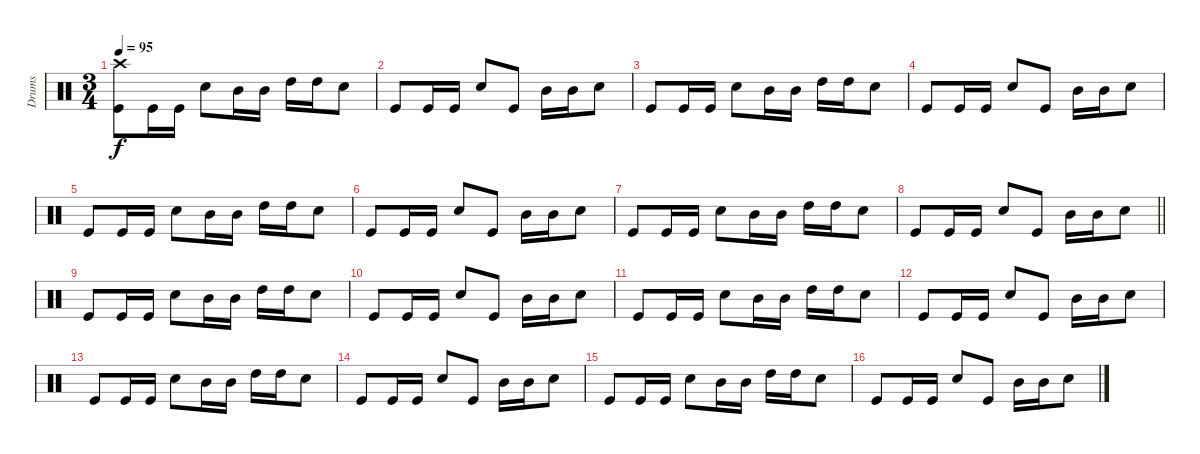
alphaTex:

\track ("Drums" "Drums") {instrument percussion}
\staff {score}
\articulation defaults
\ts (3 4)
\tempo 95
\clef neutral
\ks c
("Crash high (hit)" "Kick (hit)").8{dy f} "Kick (hit)".16 "Kick (hit)".16 "Snare (hit) 2".8 "Mid Tom (hit)".16 "Mid Tom (hit)".16 "High Tom (hit)".16 "High Tom (hit)".16 "Snare (hit) 2".8 |
"Kick (hit)".8 "Kick (hit)".16 "Kick (hit)".16 "Snare (hit) 2".8 "Kick (hit)".8 "Mid Tom (hit)".16 "Mid Tom (hit)".16 "Snare (hit) 2".8 |
"Kick (hit)".8 "Kick (hit)".16 "Kick (hit)".16 "Snare (hit) 2".8 "Mid Tom (hit)".16 "Mid Tom (hit)".16 "High Tom (hit)".16 "High Tom (hit)".16 "Snare (hit) 2".8 |
"Kick (hit)".8 "Kick (hit)".16 "Kick (hit)".16 "Snare (hit) 2".8 "Kick (hit)".8 "Mid Tom (hit)".16 "Mid Tom (hit)".16 "Snare (hit) 2".8 |
"Kick (hit)".8 "Kick (hit)".16 "Kick (hit)".16 "Snare (hit) 2".8 "Mid Tom (hit)".16 "Mid Tom (hit)".16 "High Tom (hit)".16 "High Tom (hit)".16 "Snare (hit) 2".8 |
"Kick (hit)".8 "Kick (hit)".16 "Kick (hit)".16 "Snare (hit) 2".8 "Kick (hit)".8 "Mid Tom (hit)".16 "Mid Tom (hit)".16 "Snare (hit) 2".8 |
"Kick (hit)".8 "Kick (hit)".16 "Kick (hit)".16 "Snare (hit) 2".8 "Mid Tom (hit)".16 "Mid Tom (hit)".16 "High Tom (hit)".16 "High Tom (hit)".16 "Snare (hit) 2".8 |
\barLineRight lightlight "Kick (hit)".8 "Kick (hit)".16 "Kick (hit)".16 "Snare (hit) 2".8 "Kick (hit)".8 "Mid Tom (hit)".16 "Mid Tom (hit)".16 "Snare (hit) 2".8
|
"Kick (hit)".8 "Kick (hit)".16 "Kick (hit)".16 "Snare (hit) 2".8 "Mid Tom (hit)".16 "Mid Tom (hit)".16 "High Tom (hit)".16 "High Tom (hit)".16 "Snare (hit) 2".8 |
"Kick (hit)".8 "Kick (hit)".16 "Kick (hit)".16 "Snare (hit) 2".8 "Kick (hit)".8 "Mid Tom (hit)".16 "Mid Tom (hit)".16 "Snare (hit) 2".8 |
"Kick (hit)".8 "Kick (hit)".16 "Kick (hit)".16 "Snare (hit) 2".8 "Mid Tom (hit)".16 "Mid Tom (hit)".16 "High Tom (hit)".16 "High Tom (hit)".16 "Snare (hit) 2".8 |
"Kick (hit)".8 "Kick (hit)".16 "Kick (hit)".16 "Snare (hit) 2".8 "Kick (hit)".8 "Mid Tom (hit)".16 "Mid Tom (hit)".16 "Snare (hit) 2".8 |
"Kick (hit)".8 "Kick (hit)".16 "Kick (hit)".16 "Snare (hit) 2".8 "Mid Tom (hit)".16 "Mid Tom (hit)".16 "High Tom (hit)".16 "High Tom (hit)".16 "Snare (hit) 2".8 |
"Kick (hit)".8 "Kick (hit)".16 "Kick (hit)".16 "Snare (hit) 2".8 "Kick (hit)".8 "Mid Tom (hit)".16 "Mid Tom (hit)".16 "Snare (hit) 2".8 |
"Kick (hit)".8 "Kick (hit)".16 "Kick (hit)".16 "Snare (hit) 2".8 "Mid Tom (hit)".16 "Mid Tom (hit)".16 "High Tom (hit)".16 "High Tom (hit)".16 "Snare (hit) 2".8 |
"Kick (hit)".8 "Kick (hit)".16 "Kick (hit)".16 "Snare (hit) 2".8 "Kick (hit)".8 "Mid Tom (hit)".16 "Mid Tom (hit)".16 "Snare (hit) 2".8
